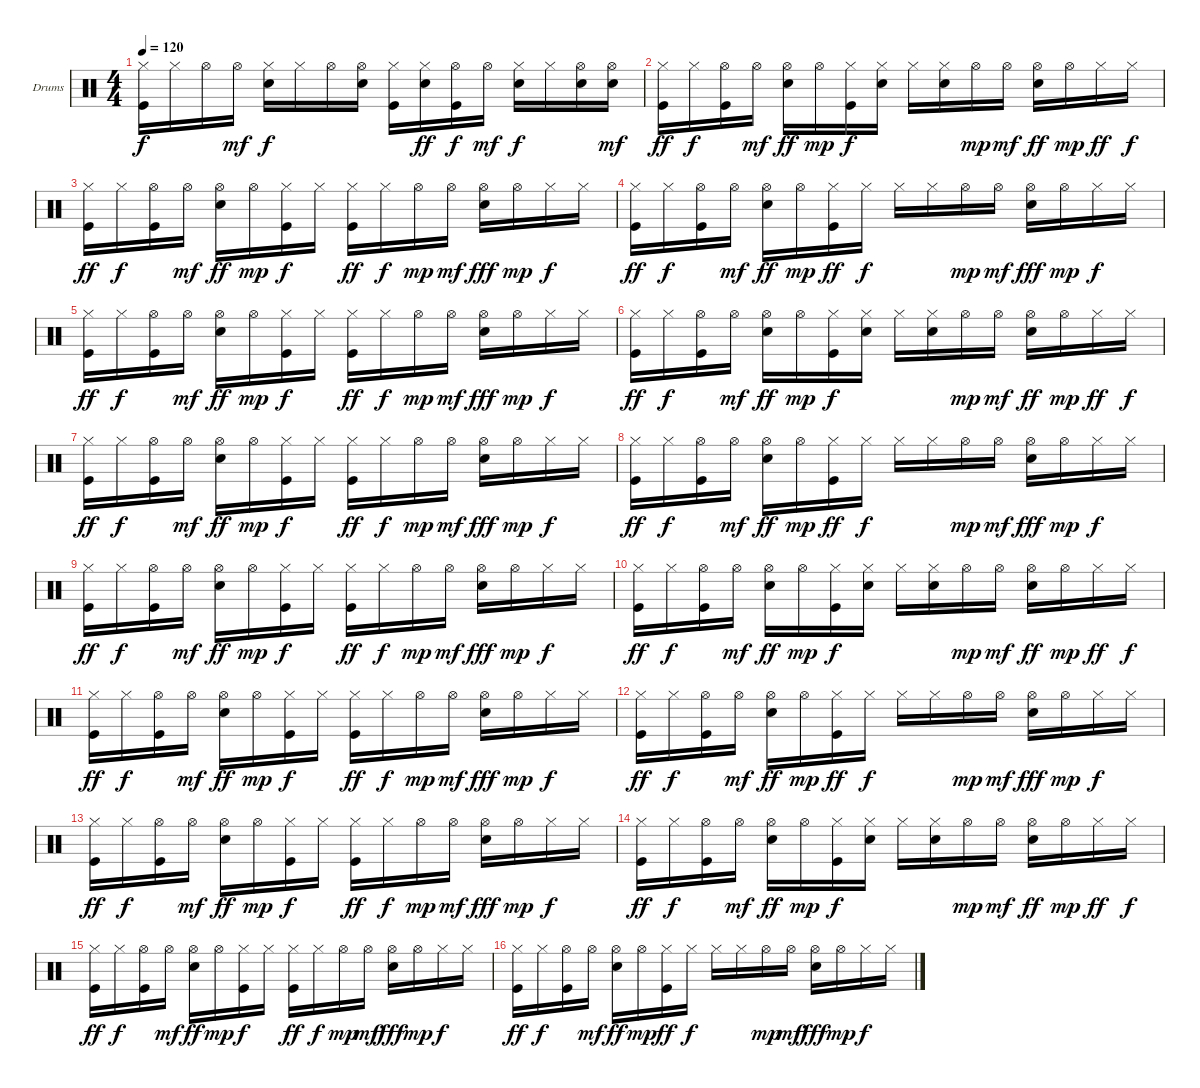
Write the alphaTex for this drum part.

\defaultSystemsLayout 4
\bracketExtendMode groupsimilarinstruments
\firstSystemTrackNameOrientation horizontal
\otherSystemsTrackNameOrientation horizontal
\track ("Г.Гурьянов-Ударные" "Drums") {instrument percussion}
\staff {score}
\articulation defaults
\ts (4 4)
\tempo 120
\clef neutral
\ks c
("Hi-Hat (closed)" "Kick (hit)").16{dy f} "Hi-Hat (closed)".16 "Hi-Hat (open)".16 "Hi-Hat (open)".16{dy mf} ("Hi-Hat (closed)" "Snare (hit) 2").16{dy f} "Hi-Hat (closed)".16 "Hi-Hat (open)".16 ("Snare (hit) 2" "Hi-Hat (open)").16 ("Hi-Hat (closed)" "Kick (hit)").16 ("Snare (hit) 2" "Hi-Hat (closed)").16{dy ff} ("Hi-Hat (open)" "Kick (hit)").16{dy f} "Hi-Hat (open)".16{dy mf} ("Snare (hit) 2" "Hi-Hat (closed)").16{dy f} "Hi-Hat (closed)".16 ("Hi-Hat (open)" "Snare (hit) 2").16 ("Hi-Hat (open)" "Snare (hit) 2").16{dy mf} |
("Kick (hit)" "Hi-Hat (closed)").16{dy ff} "Hi-Hat (closed)".16{dy f} ("Kick (hit)" "Hi-Hat (open)").16 "Hi-Hat (open)".16{dy mf} ("Snare (hit) 2" "Hi-Hat (open)").16{dy ff} "Hi-Hat (open)".16{dy mp} ("Kick (hit)" "Hi-Hat (closed)").16{dy f} ("Snare (hit) 2" "Hi-Hat (closed)").16 "Hi-Hat (closed)".16 ("Snare (hit) 2" "Hi-Hat (closed)").16 "Hi-Hat (open)".16{dy mp} "Hi-Hat (open)".16{dy mf} ("Hi-Hat (open)" "Snare (hit) 2").16{dy ff} "Hi-Hat (open)".16{dy mp} "Hi-Hat (closed)".16{dy ff} "Hi-Hat (closed)".16{dy f} |
("Kick (hit)" "Hi-Hat (closed)").16{dy ff} "Hi-Hat (closed)".16{dy f} ("Kick (hit)" "Hi-Hat (open)").16 "Hi-Hat (open)".16{dy mf} ("Snare (hit) 2" "Hi-Hat (open)").16{dy ff} "Hi-Hat (open)".16{dy mp} ("Kick (hit)" "Hi-Hat (closed)").16{dy f} "Hi-Hat (closed)".16 ("Kick (hit)" "Hi-Hat (closed)").16{dy ff} "Hi-Hat (closed)".16{dy f} "Hi-Hat (open)".16{dy mp} "Hi-Hat (open)".16{dy mf} ("Snare (hit) 2" "Hi-Hat (open)").16{dy fff} "Hi-Hat (open)".16{dy mp} "Hi-Hat (closed)".16{dy f} "Hi-Hat (closed)".16 |
("Kick (hit)" "Hi-Hat (closed)").16{dy ff} "Hi-Hat (closed)".16{dy f} ("Kick (hit)" "Hi-Hat (open)").16 "Hi-Hat (open)".16{dy mf} ("Snare (hit) 2" "Hi-Hat (open)").16{dy ff} "Hi-Hat (open)".16{dy mp} ("Kick (hit)" "Hi-Hat (closed)").16{dy ff} "Hi-Hat (closed)".16{dy f} "Hi-Hat (closed)".16 "Hi-Hat (closed)".16 "Hi-Hat (open)".16{dy mp} "Hi-Hat (open)".16{dy mf} ("Snare (hit) 2" "Hi-Hat (open)").16{dy fff} "Hi-Hat (open)".16{dy mp} "Hi-Hat (closed)".16{dy f} "Hi-Hat (closed)".16 |
("Kick (hit)" "Hi-Hat (closed)").16{dy ff} "Hi-Hat (closed)".16{dy f} ("Kick (hit)" "Hi-Hat (open)").16 "Hi-Hat (open)".16{dy mf} ("Snare (hit) 2" "Hi-Hat (open)").16{dy ff} "Hi-Hat (open)".16{dy mp} ("Kick (hit)" "Hi-Hat (closed)").16{dy f} "Hi-Hat (closed)".16 ("Kick (hit)" "Hi-Hat (closed)").16{dy ff} "Hi-Hat (closed)".16{dy f} "Hi-Hat (open)".16{dy mp} "Hi-Hat (open)".16{dy mf} ("Snare (hit) 2" "Hi-Hat (open)").16{dy fff} "Hi-Hat (open)".16{dy mp} "Hi-Hat (closed)".16{dy f} "Hi-Hat (closed)".16 |
("Kick (hit)" "Hi-Hat (closed)").16{dy ff} "Hi-Hat (closed)".16{dy f} ("Kick (hit)" "Hi-Hat (open)").16 "Hi-Hat (open)".16{dy mf} ("Snare (hit) 2" "Hi-Hat (open)").16{dy ff} "Hi-Hat (open)".16{dy mp} ("Kick (hit)" "Hi-Hat (closed)").16{dy f} ("Snare (hit) 2" "Hi-Hat (closed)").16 "Hi-Hat (closed)".16 ("Snare (hit) 2" "Hi-Hat (closed)").16 "Hi-Hat (open)".16{dy mp} "Hi-Hat (open)".16{dy mf} ("Hi-Hat (open)" "Snare (hit) 2").16{dy ff} "Hi-Hat (open)".16{dy mp} "Hi-Hat (closed)".16{dy ff} "Hi-Hat (closed)".16{dy f} |
("Kick (hit)" "Hi-Hat (closed)").16{dy ff} "Hi-Hat (closed)".16{dy f} ("Kick (hit)" "Hi-Hat (open)").16 "Hi-Hat (open)".16{dy mf} ("Snare (hit) 2" "Hi-Hat (open)").16{dy ff} "Hi-Hat (open)".16{dy mp} ("Kick (hit)" "Hi-Hat (closed)").16{dy f} "Hi-Hat (closed)".16 ("Kick (hit)" "Hi-Hat (closed)").16{dy ff} "Hi-Hat (closed)".16{dy f} "Hi-Hat (open)".16{dy mp} "Hi-Hat (open)".16{dy mf} ("Snare (hit) 2" "Hi-Hat (open)").16{dy fff} "Hi-Hat (open)".16{dy mp} "Hi-Hat (closed)".16{dy f} "Hi-Hat (closed)".16 |
("Kick (hit)" "Hi-Hat (closed)").16{dy ff} "Hi-Hat (closed)".16{dy f} ("Kick (hit)" "Hi-Hat (open)").16 "Hi-Hat (open)".16{dy mf} ("Snare (hit) 2" "Hi-Hat (open)").16{dy ff} "Hi-Hat (open)".16{dy mp} ("Kick (hit)" "Hi-Hat (closed)").16{dy ff} "Hi-Hat (closed)".16{dy f} "Hi-Hat (closed)".16 "Hi-Hat (closed)".16 "Hi-Hat (open)".16{dy mp} "Hi-Hat (open)".16{dy mf} ("Snare (hit) 2" "Hi-Hat (open)").16{dy fff} "Hi-Hat (open)".16{dy mp} "Hi-Hat (closed)".16{dy f} "Hi-Hat (closed)".16 |
("Kick (hit)" "Hi-Hat (closed)").16{dy ff} "Hi-Hat (closed)".16{dy f} ("Kick (hit)" "Hi-Hat (open)").16 "Hi-Hat (open)".16{dy mf} ("Snare (hit) 2" "Hi-Hat (open)").16{dy ff} "Hi-Hat (open)".16{dy mp} ("Kick (hit)" "Hi-Hat (closed)").16{dy f} "Hi-Hat (closed)".16 ("Kick (hit)" "Hi-Hat (closed)").16{dy ff} "Hi-Hat (closed)".16{dy f} "Hi-Hat (open)".16{dy mp} "Hi-Hat (open)".16{dy mf} ("Snare (hit) 2" "Hi-Hat (open)").16{dy fff} "Hi-Hat (open)".16{dy mp} "Hi-Hat (closed)".16{dy f} "Hi-Hat (closed)".16 |
("Kick (hit)" "Hi-Hat (closed)").16{dy ff} "Hi-Hat (closed)".16{dy f} ("Kick (hit)" "Hi-Hat (open)").16 "Hi-Hat (open)".16{dy mf} ("Snare (hit) 2" "Hi-Hat (open)").16{dy ff} "Hi-Hat (open)".16{dy mp} ("Kick (hit)" "Hi-Hat (closed)").16{dy f} ("Snare (hit) 2" "Hi-Hat (closed)").16 "Hi-Hat (closed)".16 ("Snare (hit) 2" "Hi-Hat (closed)").16 "Hi-Hat (open)".16{dy mp} "Hi-Hat (open)".16{dy mf} ("Hi-Hat (open)" "Snare (hit) 2").16{dy ff} "Hi-Hat (open)".16{dy mp} "Hi-Hat (closed)".16{dy ff} "Hi-Hat (closed)".16{dy f} |
("Kick (hit)" "Hi-Hat (closed)").16{dy ff} "Hi-Hat (closed)".16{dy f} ("Kick (hit)" "Hi-Hat (open)").16 "Hi-Hat (open)".16{dy mf} ("Snare (hit) 2" "Hi-Hat (open)").16{dy ff} "Hi-Hat (open)".16{dy mp} ("Kick (hit)" "Hi-Hat (closed)").16{dy f} "Hi-Hat (closed)".16 ("Kick (hit)" "Hi-Hat (closed)").16{dy ff} "Hi-Hat (closed)".16{dy f} "Hi-Hat (open)".16{dy mp} "Hi-Hat (open)".16{dy mf} ("Snare (hit) 2" "Hi-Hat (open)").16{dy fff} "Hi-Hat (open)".16{dy mp} "Hi-Hat (closed)".16{dy f} "Hi-Hat (closed)".16 |
("Kick (hit)" "Hi-Hat (closed)").16{dy ff} "Hi-Hat (closed)".16{dy f} ("Kick (hit)" "Hi-Hat (open)").16 "Hi-Hat (open)".16{dy mf} ("Snare (hit) 2" "Hi-Hat (open)").16{dy ff} "Hi-Hat (open)".16{dy mp} ("Kick (hit)" "Hi-Hat (closed)").16{dy ff} "Hi-Hat (closed)".16{dy f} "Hi-Hat (closed)".16 "Hi-Hat (closed)".16 "Hi-Hat (open)".16{dy mp} "Hi-Hat (open)".16{dy mf} ("Snare (hit) 2" "Hi-Hat (open)").16{dy fff} "Hi-Hat (open)".16{dy mp} "Hi-Hat (closed)".16{dy f} "Hi-Hat (closed)".16 |
("Kick (hit)" "Hi-Hat (closed)").16{dy ff} "Hi-Hat (closed)".16{dy f} ("Kick (hit)" "Hi-Hat (open)").16 "Hi-Hat (open)".16{dy mf} ("Snare (hit) 2" "Hi-Hat (open)").16{dy ff} "Hi-Hat (open)".16{dy mp} ("Kick (hit)" "Hi-Hat (closed)").16{dy f} "Hi-Hat (closed)".16 ("Kick (hit)" "Hi-Hat (closed)").16{dy ff} "Hi-Hat (closed)".16{dy f} "Hi-Hat (open)".16{dy mp} "Hi-Hat (open)".16{dy mf} ("Snare (hit) 2" "Hi-Hat (open)").16{dy fff} "Hi-Hat (open)".16{dy mp} "Hi-Hat (closed)".16{dy f} "Hi-Hat (closed)".16 |
("Kick (hit)" "Hi-Hat (closed)").16{dy ff} "Hi-Hat (closed)".16{dy f} ("Kick (hit)" "Hi-Hat (open)").16 "Hi-Hat (open)".16{dy mf} ("Snare (hit) 2" "Hi-Hat (open)").16{dy ff} "Hi-Hat (open)".16{dy mp} ("Kick (hit)" "Hi-Hat (closed)").16{dy f} ("Snare (hit) 2" "Hi-Hat (closed)").16 "Hi-Hat (closed)".16 ("Snare (hit) 2" "Hi-Hat (closed)").16 "Hi-Hat (open)".16{dy mp} "Hi-Hat (open)".16{dy mf} ("Hi-Hat (open)" "Snare (hit) 2").16{dy ff} "Hi-Hat (open)".16{dy mp} "Hi-Hat (closed)".16{dy ff} "Hi-Hat (closed)".16{dy f} |
("Kick (hit)" "Hi-Hat (closed)").16{dy ff} "Hi-Hat (closed)".16{dy f} ("Kick (hit)" "Hi-Hat (open)").16 "Hi-Hat (open)".16{dy mf} ("Snare (hit) 2" "Hi-Hat (open)").16{dy ff} "Hi-Hat (open)".16{dy mp} ("Kick (hit)" "Hi-Hat (closed)").16{dy f} "Hi-Hat (closed)".16 ("Kick (hit)" "Hi-Hat (closed)").16{dy ff} "Hi-Hat (closed)".16{dy f} "Hi-Hat (open)".16{dy mp} "Hi-Hat (open)".16{dy mf} ("Snare (hit) 2" "Hi-Hat (open)").16{dy fff} "Hi-Hat (open)".16{dy mp} "Hi-Hat (closed)".16{dy f} "Hi-Hat (closed)".16 |
("Kick (hit)" "Hi-Hat (closed)").16{dy ff} "Hi-Hat (closed)".16{dy f} ("Kick (hit)" "Hi-Hat (open)").16 "Hi-Hat (open)".16{dy mf} ("Snare (hit) 2" "Hi-Hat (open)").16{dy ff} "Hi-Hat (open)".16{dy mp} ("Kick (hit)" "Hi-Hat (closed)").16{dy ff} "Hi-Hat (closed)".16{dy f} "Hi-Hat (closed)".16 "Hi-Hat (closed)".16 "Hi-Hat (open)".16{dy mp} "Hi-Hat (open)".16{dy mf} ("Snare (hit) 2" "Hi-Hat (open)").16{dy fff} "Hi-Hat (open)".16{dy mp} "Hi-Hat (closed)".16{dy f} "Hi-Hat (closed)".16
